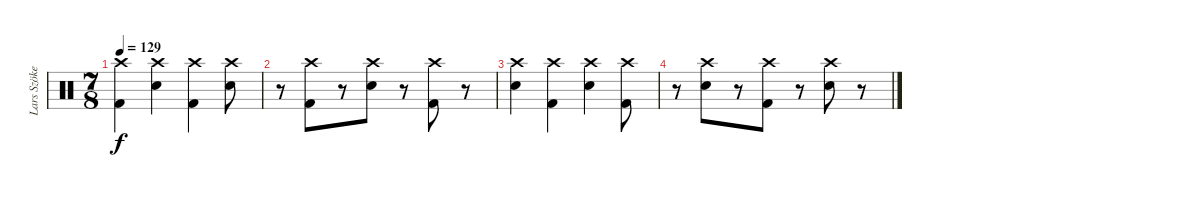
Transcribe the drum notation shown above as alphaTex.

\track ("Lars Szöke" "Lars Szöke") {instrument percussion}
\staff {score}
\articulation defaults
\ts (7 8)
\tempo 129
\clef neutral
\ks c
("Crash high (hit)" "Kick (hit) 2").4{dy f} ("Crash high (hit)" "Snare (hit) 2").4 ("Crash high (hit)" "Kick (hit) 2").4 ("Crash high (hit)" "Snare (hit) 2").8 |
r.8 ("Crash high (hit)" "Kick (hit) 2").8 r.8 ("Crash high (hit)" "Snare (hit) 2").8 r.8 ("Crash high (hit)" "Kick (hit) 2").8 r.8 |
("Crash high (hit)" "Snare (hit) 2").4 ("Crash high (hit)" "Kick (hit) 2").4 ("Crash high (hit)" "Snare (hit) 2").4 ("Crash high (hit)" "Kick (hit) 2").8 |
r.8 ("Crash high (hit)" "Snare (hit) 2").8 r.8 ("Crash high (hit)" "Kick (hit) 2").8 r.8 ("Crash high (hit)" "Snare (hit) 2").8 r.8
